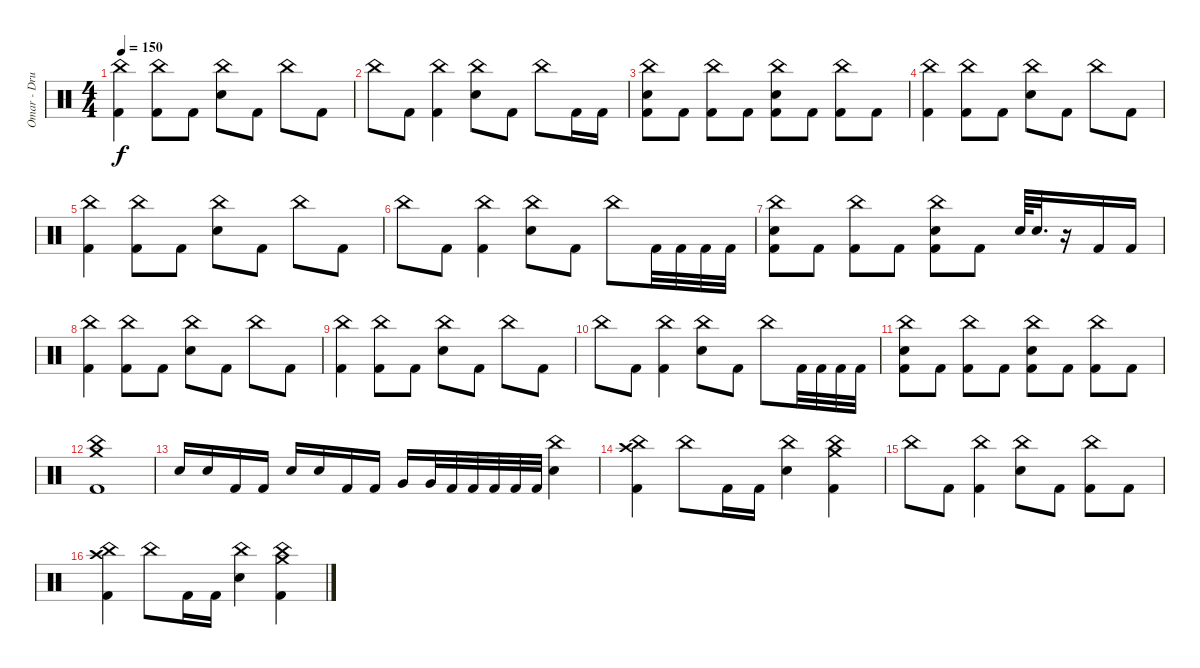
\track ("Omar - Drums" "Omar - Dru") {instrument percussion}
\staff {score}
\articulation defaults
\ts (4 4)
\tempo 150
\clef neutral
\ks c
("China (hit)" "Kick (hit) 2").4{dy f} ("China (hit)" "Kick (hit) 2").8 "Kick (hit) 2".8 ("China (hit)" "Electric Snare (hit)").8 "Kick (hit) 2".8 "China (hit)".8 "Kick (hit) 2".8 |
"China (hit)".8 "Kick (hit) 2".8 ("China (hit)" "Kick (hit) 2").4 ("China (hit)" "Electric Snare (hit)").8 "Kick (hit) 2".8 "China (hit)".8 "Kick (hit) 2".16 "Kick (hit) 2".16 |
("China (hit)" "Electric Snare (hit)" "Kick (hit) 2").8 "Kick (hit) 2".8 ("China (hit)" "Kick (hit) 2").8 "Kick (hit) 2".8 ("China (hit)" "Electric Snare (hit)" "Kick (hit) 2").8 "Kick (hit) 2".8 ("China (hit)" "Kick (hit) 2").8 "Kick (hit) 2".8 |
("China (hit)" "Kick (hit) 2").4 ("China (hit)" "Kick (hit) 2").8 "Kick (hit) 2".8 ("China (hit)" "Electric Snare (hit)").8 "Kick (hit) 2".8 "China (hit)".8 "Kick (hit) 2".8 |
("China (hit)" "Kick (hit) 2").4 ("China (hit)" "Kick (hit) 2").8 "Kick (hit) 2".8 ("China (hit)" "Electric Snare (hit)").8 "Kick (hit) 2".8 "China (hit)".8 "Kick (hit) 2".8 |
"China (hit)".8 "Kick (hit) 2".8 ("China (hit)" "Kick (hit) 2").4 ("China (hit)" "Electric Snare (hit)").8 "Kick (hit) 2".8 "China (hit)".8 "Kick (hit) 2".32 "Kick (hit) 2".32 "Kick (hit) 2".32 "Kick (hit) 2".32 |
("China (hit)" "Electric Snare (hit)" "Kick (hit) 2").8 "Kick (hit) 2".8 ("China (hit)" "Kick (hit) 2").8 "Kick (hit) 2".8 ("China (hit)" "Electric Snare (hit)" "Kick (hit) 2").8 "Kick (hit) 2".8 "Electric Snare (hit)".64 "Electric Snare (hit)".32{d} r.16 "Kick (hit) 2".16 "Kick (hit) 2".16 |
("China (hit)" "Kick (hit) 2").4 ("China (hit)" "Kick (hit) 2").8 "Kick (hit) 2".8 ("China (hit)" "Electric Snare (hit)").8 "Kick (hit) 2".8 "China (hit)".8 "Kick (hit) 2".8 |
("China (hit)" "Kick (hit) 2").4 ("China (hit)" "Kick (hit) 2").8 "Kick (hit) 2".8 ("China (hit)" "Electric Snare (hit)").8 "Kick (hit) 2".8 "China (hit)".8 "Kick (hit) 2".8 |
"China (hit)".8 "Kick (hit) 2".8 ("China (hit)" "Kick (hit) 2").4 ("China (hit)" "Electric Snare (hit)").8 "Kick (hit) 2".8 "China (hit)".8 "Kick (hit) 2".32 "Kick (hit) 2".32 "Kick (hit) 2".32 "Kick (hit) 2".32 |
("China (hit)" "Electric Snare (hit)" "Kick (hit) 2").8 "Kick (hit) 2".8 ("China (hit)" "Kick (hit) 2").8 "Kick (hit) 2".8 ("China (hit)" "Electric Snare (hit)" "Kick (hit) 2").8 "Kick (hit) 2".8 ("China (hit)" "Kick (hit) 2").8 "Kick (hit) 2".8 |
("China (hit)" "Crash medium (hit)" "Kick (hit) 2").1 |
"Electric Snare (hit)".16 "Electric Snare (hit)".16 "Kick (hit) 2".16 "Kick (hit) 2".16 "Electric Snare (hit)".16 "Electric Snare (hit)".16 "Kick (hit) 2".16 "Kick (hit) 2".16 "Very Low Tom (hit)".16 "Very Low Tom (hit)".32 "Kick (hit) 2".32 "Kick (hit) 2".32 "Kick (hit) 2".32 "Kick (hit) 2".32 "Kick (hit) 2".32 ("China (hit)" "Electric Snare (hit)").4 |
("China (hit)" "Crash high (hit)" "Kick (hit) 2").4 "China (hit)".8 "Kick (hit) 2".16 "Kick (hit) 2".16 ("China (hit)" "Electric Snare (hit)").4 ("China (hit)" "Crash medium (hit)" "Kick (hit) 2").4 |
"China (hit)".8 "Kick (hit) 2".8 ("China (hit)" "Kick (hit) 2").4 ("China (hit)" "Electric Snare (hit)").8 "Kick (hit) 2".8 ("China (hit)" "Kick (hit) 2").8 "Kick (hit) 2".8 |
("China (hit)" "Crash high (hit)" "Kick (hit) 2").4 "China (hit)".8 "Kick (hit) 2".16 "Kick (hit) 2".16 ("China (hit)" "Electric Snare (hit)").4 ("China (hit)" "Crash medium (hit)" "Kick (hit) 2").4
